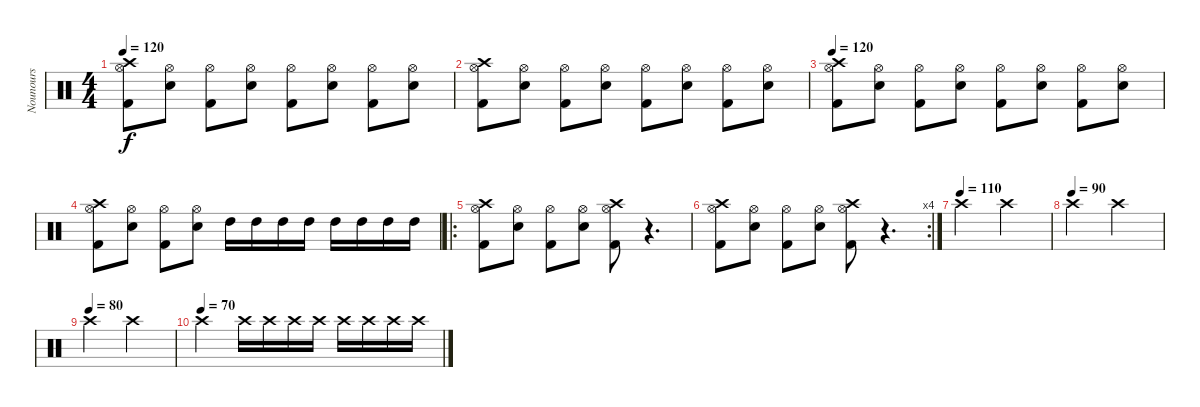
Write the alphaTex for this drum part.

\track ("Nounours" "Nounours") {instrument percussion}
\staff {score}
\articulation defaults
\ts (4 4)
\tempo 120
\clef neutral
\ks c
("Crash high (hit)" "Hi-Hat (open)" "Kick (hit) 2").8{dy f} ("Hi-Hat (open)" "Snare (hit) 2").8 ("Hi-Hat (open)" "Kick (hit) 2").8 ("Hi-Hat (open)" "Snare (hit) 2").8 ("Hi-Hat (open)" "Kick (hit) 2").8 ("Hi-Hat (open)" "Snare (hit) 2").8 ("Hi-Hat (open)" "Kick (hit) 2").8 ("Hi-Hat (open)" "Snare (hit) 2").8 |
("Crash high (hit)" "Hi-Hat (open)" "Kick (hit) 2").8 ("Hi-Hat (open)" "Snare (hit) 2").8 ("Hi-Hat (open)" "Kick (hit) 2").8 ("Hi-Hat (open)" "Snare (hit) 2").8 ("Hi-Hat (open)" "Kick (hit) 2").8 ("Hi-Hat (open)" "Snare (hit) 2").8 ("Hi-Hat (open)" "Kick (hit) 2").8 ("Hi-Hat (open)" "Snare (hit) 2").8 |
\tempo 120
("Crash high (hit)" "Hi-Hat (open)" "Kick (hit) 2").8 ("Hi-Hat (open)" "Snare (hit) 2").8 ("Hi-Hat (open)" "Kick (hit) 2").8 ("Hi-Hat (open)" "Snare (hit) 2").8 ("Hi-Hat (open)" "Kick (hit) 2").8 ("Hi-Hat (open)" "Snare (hit) 2").8 ("Hi-Hat (open)" "Kick (hit) 2").8 ("Hi-Hat (open)" "Snare (hit) 2").8 |
("Crash high (hit)" "Hi-Hat (open)" "Kick (hit) 2").8 ("Hi-Hat (open)" "Snare (hit) 2").8 ("Hi-Hat (open)" "Kick (hit) 2").8 ("Hi-Hat (open)" "Snare (hit) 2").8 "High Tom (hit)".16 "High Tom (hit)".16 "High Tom (hit)".16 "High Tom (hit)".16 "High Tom (hit)".16 "High Tom (hit)".16 "High Tom (hit)".16 "High Tom (hit)".16 |
\ro
("Crash high (hit)" "Hi-Hat (open)" "Kick (hit) 2").8 ("Hi-Hat (open)" "Snare (hit) 2").8 ("Hi-Hat (open)" "Kick (hit) 2").8 ("Hi-Hat (open)" "Snare (hit) 2").8 ("Crash high (hit)" "Hi-Hat (open)" "Kick (hit) 2").8 r.4{d} |
\rc 4
("Crash high (hit)" "Hi-Hat (open)" "Kick (hit) 2").8 ("Hi-Hat (open)" "Snare (hit) 2").8 ("Hi-Hat (open)" "Kick (hit) 2").8 ("Hi-Hat (open)" "Snare (hit) 2").8 ("Crash high (hit)" "Hi-Hat (open)" "Kick (hit) 2").8 r.4{d} |
\tempo (110)
"Crash high (hit)".2 "Crash high (hit)".2 |
\tempo (90)
"Crash high (hit)".2 "Crash high (hit)".2 |
\tempo (80)
"Crash high (hit)".2 "Crash high (hit)".2 |
\tempo (70)
"Crash high (hit)".2 "Crash high (hit)".16 "Crash high (hit)".16 "Crash high (hit)".16 "Crash high (hit)".16 "Crash high (hit)".16 "Crash high (hit)".16 "Crash high (hit)".16 "Crash high (hit)".16
